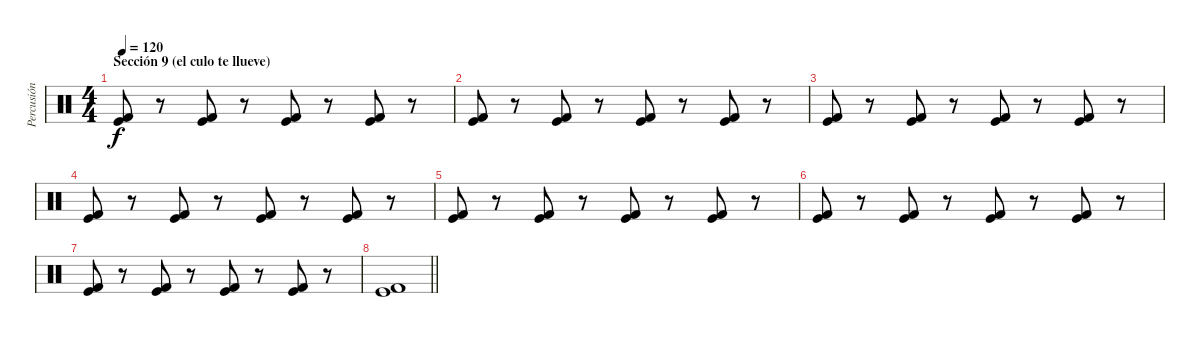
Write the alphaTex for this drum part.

\track ("Percusión 2" "Percusión ") {instrument percussion}
\staff {score}
\articulation defaults
\ts (4 4)
\section ("" "Sección 9 (el culo te llueve)")
\tempo 120
\clef neutral
\ks c
("Kick (hit)" "Kick (hit) 2").8{dy f} r.8 ("Kick (hit) 2" "Kick (hit)").8 r.8 ("Kick (hit) 2" "Kick (hit)").8 r.8 ("Kick (hit) 2" "Kick (hit)").8 r.8 |
("Kick (hit)" "Kick (hit) 2").8 r.8 ("Kick (hit) 2" "Kick (hit)").8 r.8 ("Kick (hit) 2" "Kick (hit)").8 r.8 ("Kick (hit) 2" "Kick (hit)").8 r.8 |
("Kick (hit)" "Kick (hit) 2").8 r.8 ("Kick (hit) 2" "Kick (hit)").8 r.8 ("Kick (hit) 2" "Kick (hit)").8 r.8 ("Kick (hit) 2" "Kick (hit)").8 r.8 |
("Kick (hit)" "Kick (hit) 2").8 r.8 ("Kick (hit) 2" "Kick (hit)").8 r.8 ("Kick (hit) 2" "Kick (hit)").8 r.8 ("Kick (hit) 2" "Kick (hit)").8 r.8 |
("Kick (hit)" "Kick (hit) 2").8 r.8 ("Kick (hit) 2" "Kick (hit)").8 r.8 ("Kick (hit) 2" "Kick (hit)").8 r.8 ("Kick (hit) 2" "Kick (hit)").8 r.8 |
("Kick (hit)" "Kick (hit) 2").8 r.8 ("Kick (hit) 2" "Kick (hit)").8 r.8 ("Kick (hit) 2" "Kick (hit)").8 r.8 ("Kick (hit) 2" "Kick (hit)").8 r.8 |
("Kick (hit)" "Kick (hit) 2").8 r.8 ("Kick (hit) 2" "Kick (hit)").8 r.8 ("Kick (hit) 2" "Kick (hit)").8 r.8 ("Kick (hit) 2" "Kick (hit)").8 r.8 |
\barLineRight lightlight
("Kick (hit)" "Kick (hit) 2").1
